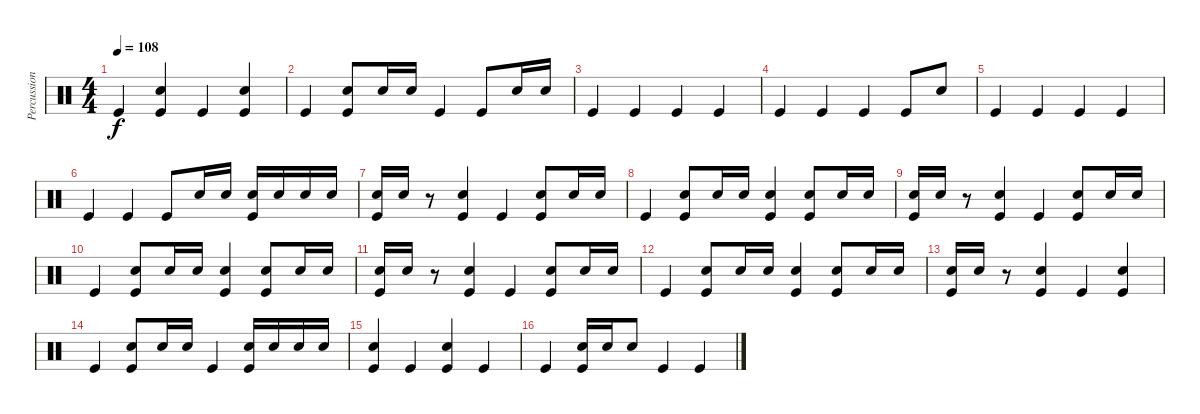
\track ("Percussion" "Percussion") {instrument percussion}
\staff {score}
\articulation defaults
\ts (4 4)
\tempo 108
\clef neutral
\ks c "Kick (hit)".4{dy f}
("Snare (hit) 2" "Kick (hit)").4 "Kick (hit)".4 ("Snare (hit) 2" "Kick (hit)").4 |
"Kick (hit)".4 ("Snare (hit) 2" "Kick (hit)").8 "Snare (hit) 2".16 "Snare (hit) 2".16 "Kick (hit)".4 "Kick (hit)".8 "Snare (hit) 2".16 "Snare (hit) 2".16 |
"Kick (hit)".4 "Kick (hit)".4 "Kick (hit)".4 "Kick (hit)".4 |
"Kick (hit)".4 "Kick (hit)".4 "Kick (hit)".4 "Kick (hit)".8 "Snare (hit) 2".8 |
"Kick (hit)".4 "Kick (hit)".4 "Kick (hit)".4 "Kick (hit)".4 |
"Kick (hit)".4 "Kick (hit)".4 "Kick (hit)".8 "Snare (hit) 2".16 "Snare (hit) 2".16 ("Snare (hit) 2" "Kick (hit)").16 "Snare (hit) 2".16 "Snare (hit) 2".16 "Snare (hit) 2".16 |
("Snare (hit) 2" "Kick (hit)").16 "Snare (hit) 2".16 r.8 ("Snare (hit) 2" "Kick (hit)").4 "Kick (hit)".4 ("Snare (hit) 2" "Kick (hit)").8 "Snare (hit) 2".16 "Snare (hit) 2".16 |
"Kick (hit)".4 ("Snare (hit) 2" "Kick (hit)").8 "Snare (hit) 2".16 "Snare (hit) 2".16 ("Snare (hit) 2" "Kick (hit)").4 ("Snare (hit) 2" "Kick (hit)").8 "Snare (hit) 2".16 "Snare (hit) 2".16 |
("Snare (hit) 2" "Kick (hit)").16 "Snare (hit) 2".16 r.8 ("Snare (hit) 2" "Kick (hit)").4 "Kick (hit)".4 ("Snare (hit) 2" "Kick (hit)").8 "Snare (hit) 2".16 "Snare (hit) 2".16 |
"Kick (hit)".4 ("Snare (hit) 2" "Kick (hit)").8 "Snare (hit) 2".16 "Snare (hit) 2".16 ("Snare (hit) 2" "Kick (hit)").4 ("Snare (hit) 2" "Kick (hit)").8 "Snare (hit) 2".16 "Snare (hit) 2".16 |
("Snare (hit) 2" "Kick (hit)").16 "Snare (hit) 2".16 r.8 ("Snare (hit) 2" "Kick (hit)").4 "Kick (hit)".4 ("Snare (hit) 2" "Kick (hit)").8 "Snare (hit) 2".16 "Snare (hit) 2".16 |
"Kick (hit)".4 ("Snare (hit) 2" "Kick (hit)").8 "Snare (hit) 2".16 "Snare (hit) 2".16 ("Snare (hit) 2" "Kick (hit)").4 ("Snare (hit) 2" "Kick (hit)").8 "Snare (hit) 2".16 "Snare (hit) 2".16 |
("Snare (hit) 2" "Kick (hit)").16 "Snare (hit) 2".16 r.8 ("Snare (hit) 2" "Kick (hit)").4 "Kick (hit)".4 ("Snare (hit) 2" "Kick (hit)").4 |
"Kick (hit)".4 ("Snare (hit) 2" "Kick (hit)").8 "Snare (hit) 2".16 "Snare (hit) 2".16 "Kick (hit)".4 ("Snare (hit) 2" "Kick (hit)").16 "Snare (hit) 2".16 "Snare (hit) 2".16 "Snare (hit) 2".16 |
("Snare (hit) 2" "Kick (hit)").4 "Kick (hit)".4 ("Snare (hit) 2" "Kick (hit)").4 "Kick (hit)".4 |
"Kick (hit)".4 ("Snare (hit) 2" "Kick (hit)").16 "Snare (hit) 2".16 "Snare (hit) 2".8 "Kick (hit)".4 "Kick (hit)".4
